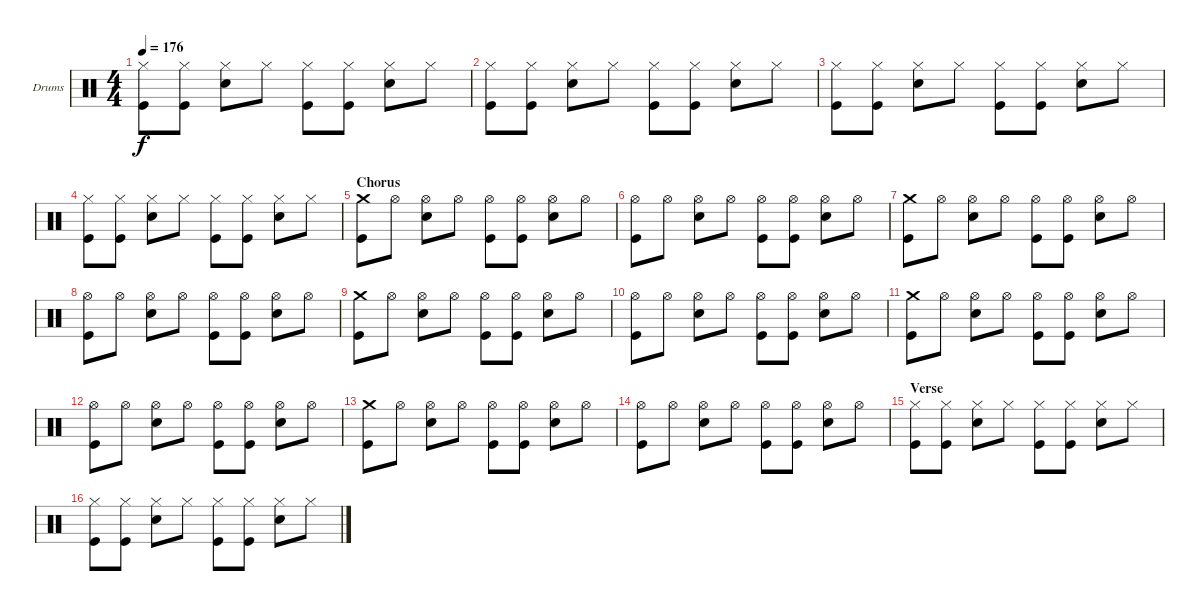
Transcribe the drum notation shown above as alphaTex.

\defaultSystemsLayout 4
\bracketExtendMode groupsimilarinstruments
\firstSystemTrackNameOrientation horizontal
\otherSystemsTrackNameOrientation horizontal
\track ("Drumkit" "Drums") {instrument percussion}
\staff {score}
\articulation defaults
\ts (4 4)
\tempo 176
\clef neutral
\scale
1.02648
\ks c
("Hi-Hat (closed)" "Kick (hit)").8{dy f} ("Hi-Hat (closed)" "Kick (hit)").8 ("Hi-Hat (closed)" "Snare (hit) 2").8 "Hi-Hat (closed)".8 ("Hi-Hat (closed)" "Kick (hit)").8 ("Hi-Hat (closed)" "Kick (hit)").8 ("Hi-Hat (closed)" "Snare (hit) 2").8 "Hi-Hat (closed)".8 |
\scale
0.973518 ("Hi-Hat (closed)" "Kick (hit)").8 ("Hi-Hat (closed)" "Kick (hit)").8 ("Hi-Hat (closed)" "Snare (hit) 2").8 "Hi-Hat (closed)".8 ("Hi-Hat (closed)" "Kick (hit)").8 ("Hi-Hat (closed)" "Kick (hit)").8 ("Hi-Hat (closed)" "Snare (hit) 2").8 "Hi-Hat (closed)".8 |
\scale
1.02648 ("Hi-Hat (closed)" "Kick (hit)").8 ("Hi-Hat (closed)" "Kick (hit)").8 ("Hi-Hat (closed)" "Snare (hit) 2").8 "Hi-Hat (closed)".8 ("Hi-Hat (closed)" "Kick (hit)").8 ("Hi-Hat (closed)" "Kick (hit)").8 ("Hi-Hat (closed)" "Snare (hit) 2").8 "Hi-Hat (closed)".8 |
\scale
0.973518 ("Hi-Hat (closed)" "Kick (hit)").8 ("Hi-Hat (closed)" "Kick (hit)").8 ("Hi-Hat (closed)" "Snare (hit) 2").8 "Hi-Hat (closed)".8 ("Hi-Hat (closed)" "Kick (hit)").8 ("Hi-Hat (closed)" "Kick (hit)").8 ("Hi-Hat (closed)" "Snare (hit) 2").8 "Hi-Hat (closed)".8 |
\section ("" "Chorus")
\scale
1.02648 ("Crash medium (hit)" "Kick (hit)").8 "Hi-Hat (open)".8 ("Hi-Hat (open)" "Snare (hit) 2").8 "Hi-Hat (open)".8 ("Hi-Hat (open)" "Kick (hit)").8 ("Hi-Hat (open)" "Kick (hit)").8 ("Hi-Hat (open)" "Snare (hit) 2").8 "Hi-Hat (open)".8 |
\scale
0.973518 ("Hi-Hat (open)" "Kick (hit)").8 "Hi-Hat (open)".8 ("Hi-Hat (open)" "Snare (hit) 2").8 "Hi-Hat (open)".8 ("Hi-Hat (open)" "Kick (hit)").8 ("Hi-Hat (open)" "Kick (hit)").8 ("Hi-Hat (open)" "Snare (hit) 2").8 "Hi-Hat (open)".8 |
\scale
1.02648 ("Crash medium (hit)" "Kick (hit)").8 "Hi-Hat (open)".8 ("Hi-Hat (open)" "Snare (hit) 2").8 "Hi-Hat (open)".8 ("Hi-Hat (open)" "Kick (hit)").8 ("Hi-Hat (open)" "Kick (hit)").8 ("Hi-Hat (open)" "Snare (hit) 2").8 "Hi-Hat (open)".8 |
\scale
0.973518 ("Hi-Hat (open)" "Kick (hit)").8 "Hi-Hat (open)".8 ("Hi-Hat (open)" "Snare (hit) 2").8 "Hi-Hat (open)".8 ("Hi-Hat (open)" "Kick (hit)").8 ("Hi-Hat (open)" "Kick (hit)").8 ("Hi-Hat (open)" "Snare (hit) 2").8 "Hi-Hat (open)".8 |
\scale
1.02648 ("Crash medium (hit)" "Kick (hit)").8 "Hi-Hat (open)".8 ("Hi-Hat (open)" "Snare (hit) 2").8 "Hi-Hat (open)".8 ("Hi-Hat (open)" "Kick (hit)").8 ("Hi-Hat (open)" "Kick (hit)").8 ("Hi-Hat (open)" "Snare (hit) 2").8 "Hi-Hat (open)".8 |
\scale
0.973518 ("Hi-Hat (open)" "Kick (hit)").8 "Hi-Hat (open)".8 ("Hi-Hat (open)" "Snare (hit) 2").8 "Hi-Hat (open)".8 ("Hi-Hat (open)" "Kick (hit)").8 ("Hi-Hat (open)" "Kick (hit)").8 ("Hi-Hat (open)" "Snare (hit) 2").8 "Hi-Hat (open)".8 |
\scale
1.02648 ("Crash medium (hit)" "Kick (hit)").8 "Hi-Hat (open)".8 ("Hi-Hat (open)" "Snare (hit) 2").8 "Hi-Hat (open)".8 ("Hi-Hat (open)" "Kick (hit)").8 ("Hi-Hat (open)" "Kick (hit)").8 ("Hi-Hat (open)" "Snare (hit) 2").8 "Hi-Hat (open)".8 |
\scale
0.973518 ("Hi-Hat (open)" "Kick (hit)").8 "Hi-Hat (open)".8 ("Hi-Hat (open)" "Snare (hit) 2").8 "Hi-Hat (open)".8 ("Hi-Hat (open)" "Kick (hit)").8 ("Hi-Hat (open)" "Kick (hit)").8 ("Hi-Hat (open)" "Snare (hit) 2").8 "Hi-Hat (open)".8 |
\scale
1.02648 ("Crash medium (hit)" "Kick (hit)").8 "Hi-Hat (open)".8 ("Hi-Hat (open)" "Snare (hit) 2").8 "Hi-Hat (open)".8 ("Hi-Hat (open)" "Kick (hit)").8 ("Hi-Hat (open)" "Kick (hit)").8 ("Hi-Hat (open)" "Snare (hit) 2").8 "Hi-Hat (open)".8 |
\scale
0.973518 ("Hi-Hat (open)" "Kick (hit)").8 "Hi-Hat (open)".8 ("Hi-Hat (open)" "Snare (hit) 2").8 "Hi-Hat (open)".8 ("Hi-Hat (open)" "Kick (hit)").8 ("Hi-Hat (open)" "Kick (hit)").8 ("Hi-Hat (open)" "Snare (hit) 2").8 "Hi-Hat (open)".8 |
\section ("" "Verse")
("Hi-Hat (closed)" "Kick (hit)").8 ("Hi-Hat (closed)" "Kick (hit)").8 ("Hi-Hat (closed)" "Snare (hit) 2").8 "Hi-Hat (closed)".8 ("Hi-Hat (closed)" "Kick (hit)").8 ("Hi-Hat (closed)" "Kick (hit)").8 ("Hi-Hat (closed)" "Snare (hit) 2").8 "Hi-Hat (closed)".8 |
("Hi-Hat (closed)" "Kick (hit)").8 ("Hi-Hat (closed)" "Kick (hit)").8 ("Hi-Hat (closed)" "Snare (hit) 2").8 "Hi-Hat (closed)".8 ("Hi-Hat (closed)" "Kick (hit)").8 ("Hi-Hat (closed)" "Kick (hit)").8 ("Hi-Hat (closed)" "Snare (hit) 2").8 "Hi-Hat (closed)".8
